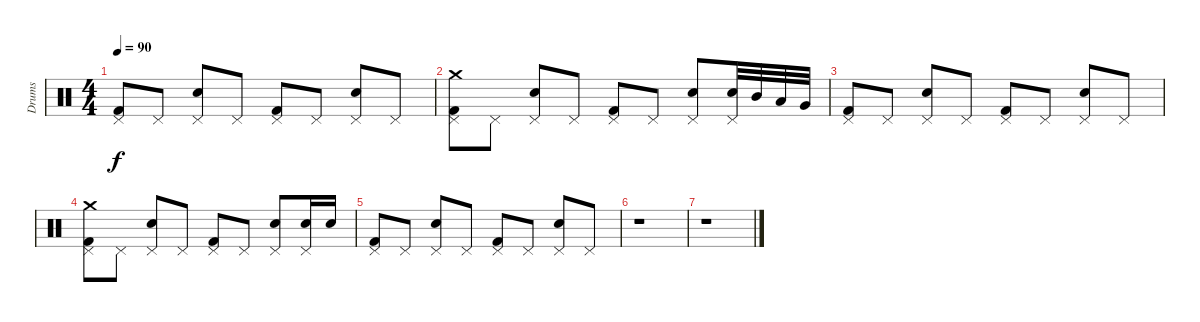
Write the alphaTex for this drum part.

\track ("Drums" "Drums") {instrument percussion}
\staff {score}
\articulation defaults
\ts (4 4)
\tempo 90
\clef neutral
\ks c
("Kick (hit) 2" "Pedal Hi-Hat (hit)").8{dy f} "Pedal Hi-Hat (hit)".8 ("Pedal Hi-Hat (hit)" "Electric Snare (hit)").8 "Pedal Hi-Hat (hit)".8 ("Pedal Hi-Hat (hit)" "Kick (hit) 2").8 "Pedal Hi-Hat (hit)".8 ("Pedal Hi-Hat (hit)" "Electric Snare (hit)").8 "Pedal Hi-Hat (hit)".8 |
("Pedal Hi-Hat (hit)" "Kick (hit) 2" "Crash medium (hit)").8 "Pedal Hi-Hat (hit)".8 ("Electric Snare (hit)" "Pedal Hi-Hat (hit)").8 "Pedal Hi-Hat (hit)".8 ("Pedal Hi-Hat (hit)" "Kick (hit) 2").8 "Pedal Hi-Hat (hit)".8 ("Pedal Hi-Hat (hit)" "Electric Snare (hit)").8 ("Pedal Hi-Hat (hit)" "Electric Snare (hit)").32 "Mid Tom (hit)".32 "Low Tom (hit)".32 "Very Low Tom (hit)".32 |
("Pedal Hi-Hat (hit)" "Kick (hit) 2").8 "Pedal Hi-Hat (hit)".8 ("Pedal Hi-Hat (hit)" "Electric Snare (hit)").8 "Pedal Hi-Hat (hit)".8 ("Kick (hit) 2" "Pedal Hi-Hat (hit)").8 "Pedal Hi-Hat (hit)".8 ("Electric Snare (hit)" "Pedal Hi-Hat (hit)").8 "Pedal Hi-Hat (hit)".8 |
("Kick (hit) 2" "Pedal Hi-Hat (hit)" "Crash medium (hit)").8 "Pedal Hi-Hat (hit)".8 ("Electric Snare (hit)" "Pedal Hi-Hat (hit)").8 "Pedal Hi-Hat (hit)".8 ("Kick (hit) 2" "Pedal Hi-Hat (hit)").8 "Pedal Hi-Hat (hit)".8 ("Electric Snare (hit)" "Pedal Hi-Hat (hit)").8 ("Electric Snare (hit)" "Pedal Hi-Hat (hit)").16 "Electric Snare (hit)".16 |
("Kick (hit) 2" "Pedal Hi-Hat (hit)").8 "Pedal Hi-Hat (hit)".8 ("Pedal Hi-Hat (hit)" "Electric Snare (hit)").8 "Pedal Hi-Hat (hit)".8 ("Pedal Hi-Hat (hit)" "Kick (hit) 2").8 "Pedal Hi-Hat (hit)".8 ("Pedal Hi-Hat (hit)" "Electric Snare (hit)").8 "Pedal Hi-Hat (hit)".8 |
r.1 |
r.1
